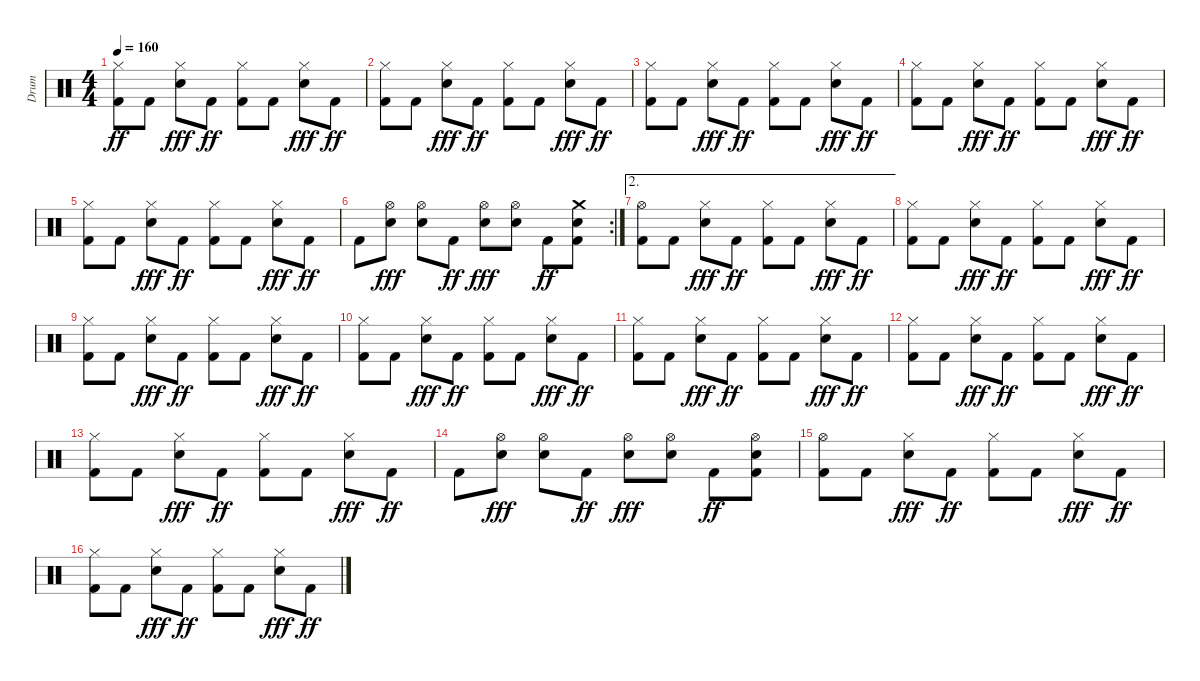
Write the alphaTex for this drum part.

\track ("Drum" "Drum") {instrument percussion}
\staff {score}
\articulation defaults
\ts (4 4)
\tempo 160
\clef neutral
\ks c
("Hi-Hat (closed)" "Kick (hit) 2").8{dy ff} "Kick (hit) 2".8 ("Hi-Hat (closed)" "Snare (hit) 2").8{dy fff} "Kick (hit) 2".8{dy ff} ("Hi-Hat (closed)" "Kick (hit) 2").8 "Kick (hit) 2".8 ("Hi-Hat (closed)" "Snare (hit) 2").8{dy fff} "Kick (hit) 2".8{dy ff} |
("Hi-Hat (closed)" "Kick (hit) 2").8 "Kick (hit) 2".8 ("Hi-Hat (closed)" "Snare (hit) 2").8{dy fff} "Kick (hit) 2".8{dy ff} ("Hi-Hat (closed)" "Kick (hit) 2").8 "Kick (hit) 2".8 ("Hi-Hat (closed)" "Snare (hit) 2").8{dy fff} "Kick (hit) 2".8{dy ff} |
("Hi-Hat (closed)" "Kick (hit) 2").8 "Kick (hit) 2".8 ("Hi-Hat (closed)" "Snare (hit) 2").8{dy fff} "Kick (hit) 2".8{dy ff} ("Hi-Hat (closed)" "Kick (hit) 2").8 "Kick (hit) 2".8 ("Hi-Hat (closed)" "Snare (hit) 2").8{dy fff} "Kick (hit) 2".8{dy ff} |
("Hi-Hat (closed)" "Kick (hit) 2").8 "Kick (hit) 2".8 ("Hi-Hat (closed)" "Snare (hit) 2").8{dy fff} "Kick (hit) 2".8{dy ff} ("Hi-Hat (closed)" "Kick (hit) 2").8 "Kick (hit) 2".8 ("Hi-Hat (closed)" "Snare (hit) 2").8{dy fff} "Kick (hit) 2".8{dy ff} |
("Hi-Hat (closed)" "Kick (hit) 2").8 "Kick (hit) 2".8 ("Hi-Hat (closed)" "Snare (hit) 2").8{dy fff} "Kick (hit) 2".8{dy ff} ("Hi-Hat (closed)" "Kick (hit) 2").8 "Kick (hit) 2".8 ("Hi-Hat (closed)" "Snare (hit) 2").8{dy fff} "Kick (hit) 2".8{dy ff} |
\rc 2 "Kick (hit) 2".8
("Hi-Hat (open)" "Snare (hit) 2").8{dy fff} ("Hi-Hat (open)" "Snare (hit) 2").8 "Kick (hit) 2".8{dy ff} ("Hi-Hat (open)" "Snare (hit) 2").8{dy fff} ("Hi-Hat (open)" "Snare (hit) 2").8 "Kick (hit) 2".8{dy ff} ("Crash medium (hit)" "Snare (hit) 2" "Kick (hit) 2").8 |
\ae 2
("Hi-Hat (open)" "Kick (hit) 2").8 "Kick (hit) 2".8 ("Hi-Hat (closed)" "Snare (hit) 2").8{dy fff} "Kick (hit) 2".8{dy ff} ("Hi-Hat (closed)" "Kick (hit) 2").8 "Kick (hit) 2".8 ("Hi-Hat (closed)" "Snare (hit) 2").8{dy fff} "Kick (hit) 2".8{dy ff} |
("Hi-Hat (closed)" "Kick (hit) 2").8 "Kick (hit) 2".8 ("Hi-Hat (closed)" "Snare (hit) 2").8{dy fff} "Kick (hit) 2".8{dy ff} ("Hi-Hat (closed)" "Kick (hit) 2").8 "Kick (hit) 2".8 ("Hi-Hat (closed)" "Snare (hit) 2").8{dy fff} "Kick (hit) 2".8{dy ff} |
("Hi-Hat (closed)" "Kick (hit) 2").8 "Kick (hit) 2".8 ("Hi-Hat (closed)" "Snare (hit) 2").8{dy fff} "Kick (hit) 2".8{dy ff} ("Hi-Hat (closed)" "Kick (hit) 2").8 "Kick (hit) 2".8 ("Hi-Hat (closed)" "Snare (hit) 2").8{dy fff} "Kick (hit) 2".8{dy ff} |
("Hi-Hat (closed)" "Kick (hit) 2").8 "Kick (hit) 2".8 ("Hi-Hat (closed)" "Snare (hit) 2").8{dy fff} "Kick (hit) 2".8{dy ff} ("Hi-Hat (closed)" "Kick (hit) 2").8 "Kick (hit) 2".8 ("Hi-Hat (closed)" "Snare (hit) 2").8{dy fff} "Kick (hit) 2".8{dy ff} |
("Hi-Hat (closed)" "Kick (hit) 2").8 "Kick (hit) 2".8 ("Hi-Hat (closed)" "Snare (hit) 2").8{dy fff} "Kick (hit) 2".8{dy ff} ("Hi-Hat (closed)" "Kick (hit) 2").8 "Kick (hit) 2".8 ("Hi-Hat (closed)" "Snare (hit) 2").8{dy fff} "Kick (hit) 2".8{dy ff} |
("Hi-Hat (closed)" "Kick (hit) 2").8 "Kick (hit) 2".8 ("Hi-Hat (closed)" "Snare (hit) 2").8{dy fff} "Kick (hit) 2".8{dy ff} ("Hi-Hat (closed)" "Kick (hit) 2").8 "Kick (hit) 2".8 ("Hi-Hat (closed)" "Snare (hit) 2").8{dy fff} "Kick (hit) 2".8{dy ff} |
("Hi-Hat (closed)" "Kick (hit) 2").8 "Kick (hit) 2".8 ("Hi-Hat (closed)" "Snare (hit) 2").8{dy fff} "Kick (hit) 2".8{dy ff} ("Hi-Hat (closed)" "Kick (hit) 2").8 "Kick (hit) 2".8 ("Hi-Hat (closed)" "Snare (hit) 2").8{dy fff} "Kick (hit) 2".8{dy ff} |
"Kick (hit) 2".8 ("Hi-Hat (open)" "Snare (hit) 2").8{dy fff} ("Hi-Hat (open)" "Snare (hit) 2").8 "Kick (hit) 2".8{dy ff} ("Hi-Hat (open)" "Snare (hit) 2").8{dy fff} ("Hi-Hat (open)" "Snare (hit) 2").8 "Kick (hit) 2".8{dy ff} ("Hi-Hat (open)" "Snare (hit) 2" "Kick (hit) 2").8 |
("Hi-Hat (open)" "Kick (hit) 2").8 "Kick (hit) 2".8 ("Hi-Hat (closed)" "Snare (hit) 2").8{dy fff} "Kick (hit) 2".8{dy ff} ("Hi-Hat (closed)" "Kick (hit) 2").8 "Kick (hit) 2".8 ("Hi-Hat (closed)" "Snare (hit) 2").8{dy fff} "Kick (hit) 2".8{dy ff} |
("Hi-Hat (closed)" "Kick (hit) 2").8 "Kick (hit) 2".8 ("Hi-Hat (closed)" "Snare (hit) 2").8{dy fff} "Kick (hit) 2".8{dy ff} ("Hi-Hat (closed)" "Kick (hit) 2").8 "Kick (hit) 2".8 ("Hi-Hat (closed)" "Snare (hit) 2").8{dy fff} "Kick (hit) 2".8{dy ff}
